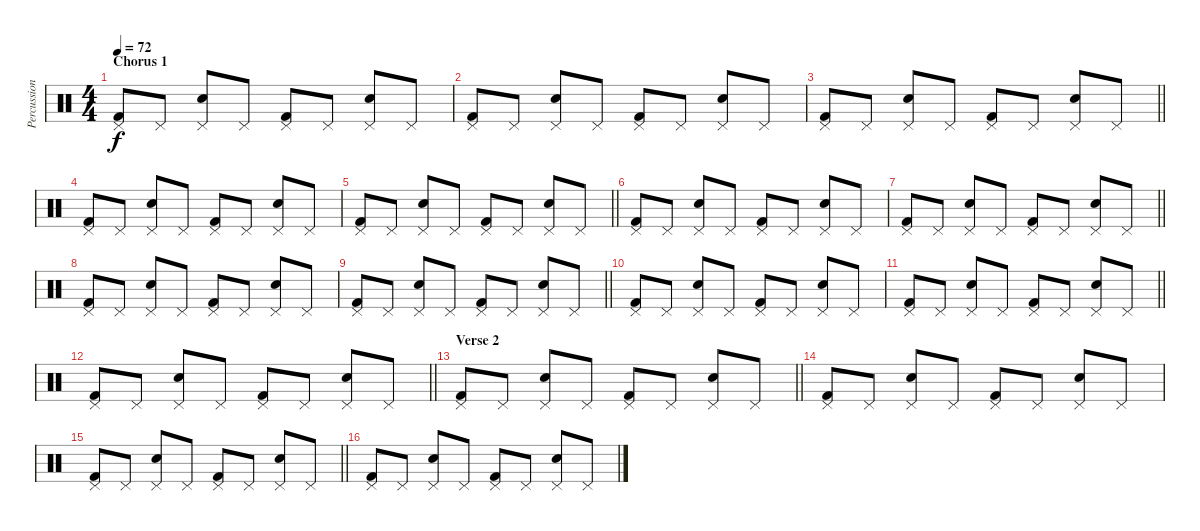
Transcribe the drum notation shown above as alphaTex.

\track ("Percussion" "Percussion") {instrument percussion}
\staff {score}
\articulation defaults
\ts (4 4)
\section ("" "Chorus 1")
\tempo 72
\clef neutral
\ks c
("Pedal Hi-Hat (hit)" "Kick (hit) 2").8{dy f} "Pedal Hi-Hat (hit)".8 ("Pedal Hi-Hat (hit)" "Snare (hit) 2").8 "Pedal Hi-Hat (hit)".8 ("Pedal Hi-Hat (hit)" "Kick (hit) 2").8 "Pedal Hi-Hat (hit)".8 ("Pedal Hi-Hat (hit)" "Snare (hit) 2").8 "Pedal Hi-Hat (hit)".8 |
("Pedal Hi-Hat (hit)" "Kick (hit) 2").8 "Pedal Hi-Hat (hit)".8 ("Pedal Hi-Hat (hit)" "Snare (hit) 2").8 "Pedal Hi-Hat (hit)".8 ("Pedal Hi-Hat (hit)" "Kick (hit) 2").8 "Pedal Hi-Hat (hit)".8 ("Pedal Hi-Hat (hit)" "Snare (hit) 2").8 "Pedal Hi-Hat (hit)".8 |
\barLineRight lightlight
("Pedal Hi-Hat (hit)" "Kick (hit) 2").8 "Pedal Hi-Hat (hit)".8 ("Pedal Hi-Hat (hit)" "Snare (hit) 2").8 "Pedal Hi-Hat (hit)".8 ("Pedal Hi-Hat (hit)" "Kick (hit) 2").8 "Pedal Hi-Hat (hit)".8 ("Pedal Hi-Hat (hit)" "Snare (hit) 2").8 "Pedal Hi-Hat (hit)".8 |
("Pedal Hi-Hat (hit)" "Kick (hit) 2").8 "Pedal Hi-Hat (hit)".8 ("Pedal Hi-Hat (hit)" "Snare (hit) 2").8 "Pedal Hi-Hat (hit)".8 ("Pedal Hi-Hat (hit)" "Kick (hit) 2").8 "Pedal Hi-Hat (hit)".8 ("Pedal Hi-Hat (hit)" "Snare (hit) 2").8 "Pedal Hi-Hat (hit)".8 |
\barLineRight lightlight
("Pedal Hi-Hat (hit)" "Kick (hit) 2").8 "Pedal Hi-Hat (hit)".8 ("Pedal Hi-Hat (hit)" "Snare (hit) 2").8 "Pedal Hi-Hat (hit)".8 ("Pedal Hi-Hat (hit)" "Kick (hit) 2").8 "Pedal Hi-Hat (hit)".8 ("Pedal Hi-Hat (hit)" "Snare (hit) 2").8 "Pedal Hi-Hat (hit)".8 |
("Pedal Hi-Hat (hit)" "Kick (hit) 2").8 "Pedal Hi-Hat (hit)".8 ("Pedal Hi-Hat (hit)" "Snare (hit) 2").8 "Pedal Hi-Hat (hit)".8 ("Pedal Hi-Hat (hit)" "Kick (hit) 2").8 "Pedal Hi-Hat (hit)".8 ("Pedal Hi-Hat (hit)" "Snare (hit) 2").8 "Pedal Hi-Hat (hit)".8 |
\barLineRight lightlight
("Pedal Hi-Hat (hit)" "Kick (hit) 2").8 "Pedal Hi-Hat (hit)".8 ("Pedal Hi-Hat (hit)" "Snare (hit) 2").8 "Pedal Hi-Hat (hit)".8 ("Pedal Hi-Hat (hit)" "Kick (hit) 2").8 "Pedal Hi-Hat (hit)".8 ("Pedal Hi-Hat (hit)" "Snare (hit) 2").8 "Pedal Hi-Hat (hit)".8 |
("Pedal Hi-Hat (hit)" "Kick (hit) 2").8 "Pedal Hi-Hat (hit)".8 ("Pedal Hi-Hat (hit)" "Snare (hit) 2").8 "Pedal Hi-Hat (hit)".8 ("Pedal Hi-Hat (hit)" "Kick (hit) 2").8 "Pedal Hi-Hat (hit)".8 ("Pedal Hi-Hat (hit)" "Snare (hit) 2").8 "Pedal Hi-Hat (hit)".8 |
\barLineRight lightlight
("Pedal Hi-Hat (hit)" "Kick (hit) 2").8 "Pedal Hi-Hat (hit)".8 ("Pedal Hi-Hat (hit)" "Snare (hit) 2").8 "Pedal Hi-Hat (hit)".8 ("Pedal Hi-Hat (hit)" "Kick (hit) 2").8 "Pedal Hi-Hat (hit)".8 ("Pedal Hi-Hat (hit)" "Snare (hit) 2").8 "Pedal Hi-Hat (hit)".8 |
("Pedal Hi-Hat (hit)" "Kick (hit) 2").8 "Pedal Hi-Hat (hit)".8 ("Pedal Hi-Hat (hit)" "Snare (hit) 2").8 "Pedal Hi-Hat (hit)".8 ("Pedal Hi-Hat (hit)" "Kick (hit) 2").8 "Pedal Hi-Hat (hit)".8 ("Pedal Hi-Hat (hit)" "Snare (hit) 2").8 "Pedal Hi-Hat (hit)".8 |
\barLineRight lightlight
("Pedal Hi-Hat (hit)" "Kick (hit) 2").8 "Pedal Hi-Hat (hit)".8 ("Pedal Hi-Hat (hit)" "Snare (hit) 2").8 "Pedal Hi-Hat (hit)".8 ("Pedal Hi-Hat (hit)" "Kick (hit) 2").8 "Pedal Hi-Hat (hit)".8 ("Pedal Hi-Hat (hit)" "Snare (hit) 2").8 "Pedal Hi-Hat (hit)".8 |
\barLineRight lightlight
("Pedal Hi-Hat (hit)" "Kick (hit) 2").8 "Pedal Hi-Hat (hit)".8 ("Pedal Hi-Hat (hit)" "Snare (hit) 2").8 "Pedal Hi-Hat (hit)".8 ("Pedal Hi-Hat (hit)" "Kick (hit) 2").8 "Pedal Hi-Hat (hit)".8 ("Pedal Hi-Hat (hit)" "Snare (hit) 2").8 "Pedal Hi-Hat (hit)".8 |
\section ("" "Verse 2")
\barLineRight lightlight
("Pedal Hi-Hat (hit)" "Kick (hit) 2").8 "Pedal Hi-Hat (hit)".8 ("Pedal Hi-Hat (hit)" "Snare (hit) 2").8 "Pedal Hi-Hat (hit)".8 ("Pedal Hi-Hat (hit)" "Kick (hit) 2").8 "Pedal Hi-Hat (hit)".8 ("Pedal Hi-Hat (hit)" "Snare (hit) 2").8 "Pedal Hi-Hat (hit)".8 |
("Pedal Hi-Hat (hit)" "Kick (hit) 2").8 "Pedal Hi-Hat (hit)".8 ("Pedal Hi-Hat (hit)" "Snare (hit) 2").8 "Pedal Hi-Hat (hit)".8 ("Pedal Hi-Hat (hit)" "Kick (hit) 2").8 "Pedal Hi-Hat (hit)".8 ("Pedal Hi-Hat (hit)" "Snare (hit) 2").8 "Pedal Hi-Hat (hit)".8 |
\barLineRight lightlight
("Pedal Hi-Hat (hit)" "Kick (hit) 2").8 "Pedal Hi-Hat (hit)".8 ("Pedal Hi-Hat (hit)" "Snare (hit) 2").8 "Pedal Hi-Hat (hit)".8 ("Pedal Hi-Hat (hit)" "Kick (hit) 2").8 "Pedal Hi-Hat (hit)".8 ("Pedal Hi-Hat (hit)" "Snare (hit) 2").8 "Pedal Hi-Hat (hit)".8 |
("Pedal Hi-Hat (hit)" "Kick (hit) 2").8 "Pedal Hi-Hat (hit)".8 ("Pedal Hi-Hat (hit)" "Snare (hit) 2").8 "Pedal Hi-Hat (hit)".8 ("Pedal Hi-Hat (hit)" "Kick (hit) 2").8 "Pedal Hi-Hat (hit)".8 ("Pedal Hi-Hat (hit)" "Snare (hit) 2").8 "Pedal Hi-Hat (hit)".8
